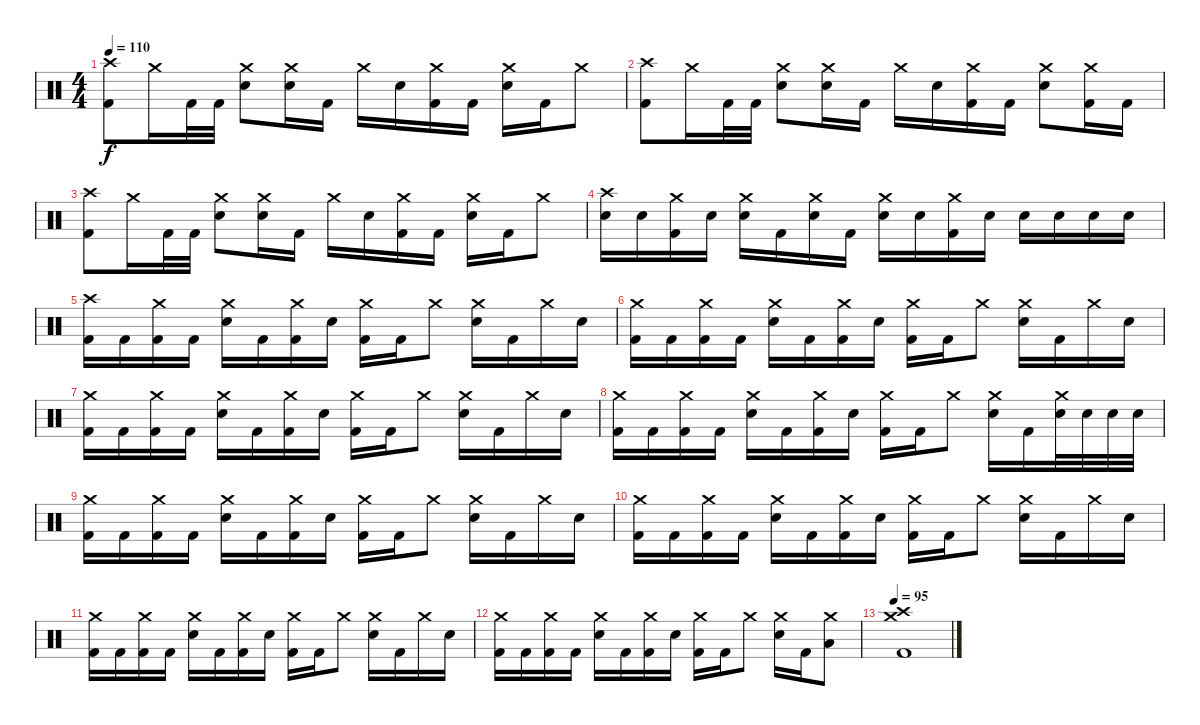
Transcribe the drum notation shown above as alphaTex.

\track "" {instrument percussion}
\staff {score}
\articulation defaults
\ts (4 4)
\tempo 110
\clef neutral
\ks c
("Crash high (hit)" "Kick (hit) 2").8{dy f} "Crash medium (hit)".16 "Kick (hit) 2".32 "Kick (hit) 2".32 ("Crash medium (hit)" "Electric Snare (hit)").8 ("Crash medium (hit)" "Electric Snare (hit)").16 "Kick (hit) 2".16 "Crash medium (hit)".16 "Electric Snare (hit)".16 ("Crash medium (hit)" "Kick (hit) 2").16 "Kick (hit) 2".16 ("Crash medium (hit)" "Electric Snare (hit)").16 "Kick (hit) 2".16 "Crash medium (hit)".8 |
("Crash high (hit)" "Kick (hit) 2").8 "Crash medium (hit)".16 "Kick (hit) 2".32 "Kick (hit) 2".32 ("Crash medium (hit)" "Electric Snare (hit)").8 ("Crash medium (hit)" "Electric Snare (hit)").16 "Kick (hit) 2".16 "Crash medium (hit)".16 "Electric Snare (hit)".16 ("Crash medium (hit)" "Kick (hit) 2").16 "Kick (hit) 2".16 ("Crash medium (hit)" "Electric Snare (hit)").8 ("Crash medium (hit)" "Kick (hit) 2").16 "Kick (hit) 2".16 |
("Crash high (hit)" "Kick (hit) 2").8 "Crash medium (hit)".16 "Kick (hit) 2".32 "Kick (hit) 2".32 ("Crash medium (hit)" "Electric Snare (hit)").8 ("Crash medium (hit)" "Electric Snare (hit)").16 "Kick (hit) 2".16 "Crash medium (hit)".16 "Electric Snare (hit)".16 ("Crash medium (hit)" "Kick (hit) 2").16 "Kick (hit) 2".16 ("Crash medium (hit)" "Electric Snare (hit)").16 "Kick (hit) 2".16 "Crash medium (hit)".8 |
("Crash high (hit)" "Electric Snare (hit)").16 "Electric Snare (hit)".16 ("Crash medium (hit)" "Kick (hit) 2").16 "Electric Snare (hit)".16 ("Crash medium (hit)" "Electric Snare (hit)").16 "Kick (hit) 2".16 ("Crash medium (hit)" "Electric Snare (hit)").16 "Kick (hit) 2".16 ("Crash medium (hit)" "Electric Snare (hit)").16 "Electric Snare (hit)".16 ("Crash medium (hit)" "Kick (hit) 2").16 "Electric Snare (hit)".16 "Electric Snare (hit)".16 "Electric Snare (hit)".16 "Electric Snare (hit)".16 "Electric Snare (hit)".16 |
("Crash high (hit)" "Kick (hit) 2").16 "Kick (hit) 2".16 ("Crash medium (hit)" "Kick (hit) 2").16 "Kick (hit) 2".16 ("Crash medium (hit)" "Electric Snare (hit)").16 "Kick (hit) 2".16 ("Crash medium (hit)" "Kick (hit) 2").16 "Electric Snare (hit)".16 ("Crash medium (hit)" "Kick (hit) 2").16 "Kick (hit) 2".16 "Crash medium (hit)".8 ("Crash medium (hit)" "Electric Snare (hit)").16 "Kick (hit) 2".16 "Crash medium (hit)".16 "Electric Snare (hit)".16 |
("Crash medium (hit)" "Kick (hit) 2").16 "Kick (hit) 2".16 ("Crash medium (hit)" "Kick (hit) 2").16 "Kick (hit) 2".16 ("Crash medium (hit)" "Electric Snare (hit)").16 "Kick (hit) 2".16 ("Crash medium (hit)" "Kick (hit) 2").16 "Electric Snare (hit)".16 ("Crash medium (hit)" "Kick (hit) 2").16 "Kick (hit) 2".16 "Crash medium (hit)".8 ("Crash medium (hit)" "Electric Snare (hit)").16 "Kick (hit) 2".16 "Crash medium (hit)".16 "Electric Snare (hit)".16 |
("Crash medium (hit)" "Kick (hit) 2").16 "Kick (hit) 2".16 ("Crash medium (hit)" "Kick (hit) 2").16 "Kick (hit) 2".16 ("Crash medium (hit)" "Electric Snare (hit)").16 "Kick (hit) 2".16 ("Crash medium (hit)" "Kick (hit) 2").16 "Electric Snare (hit)".16 ("Crash medium (hit)" "Kick (hit) 2").16 "Kick (hit) 2".16 "Crash medium (hit)".8 ("Crash medium (hit)" "Electric Snare (hit)").16 "Kick (hit) 2".16 "Crash medium (hit)".16 "Electric Snare (hit)".16 |
("Crash medium (hit)" "Kick (hit) 2").16 "Kick (hit) 2".16 ("Crash medium (hit)" "Kick (hit) 2").16 "Kick (hit) 2".16 ("Crash medium (hit)" "Electric Snare (hit)").16 "Kick (hit) 2".16 ("Crash medium (hit)" "Kick (hit) 2").16 "Electric Snare (hit)".16 ("Crash medium (hit)" "Kick (hit) 2").16 "Kick (hit) 2".16 "Crash medium (hit)".8 ("Crash medium (hit)" "Electric Snare (hit)").16 "Kick (hit) 2".16 ("Crash medium (hit)" "Electric Snare (hit)").32 "Electric Snare (hit)".32 "Electric Snare (hit)".32 "Electric Snare (hit)".32 |
("Crash medium (hit)" "Kick (hit) 2").16 "Kick (hit) 2".16 ("Crash medium (hit)" "Kick (hit) 2").16 "Kick (hit) 2".16 ("Crash medium (hit)" "Electric Snare (hit)").16 "Kick (hit) 2".16 ("Crash medium (hit)" "Kick (hit) 2").16 "Electric Snare (hit)".16 ("Crash medium (hit)" "Kick (hit) 2").16 "Kick (hit) 2".16 "Crash medium (hit)".8 ("Crash medium (hit)" "Electric Snare (hit)").16 "Kick (hit) 2".16 "Crash medium (hit)".16 "Electric Snare (hit)".16 |
("Crash medium (hit)" "Kick (hit) 2").16 "Kick (hit) 2".16 ("Crash medium (hit)" "Kick (hit) 2").16 "Kick (hit) 2".16 ("Crash medium (hit)" "Electric Snare (hit)").16 "Kick (hit) 2".16 ("Crash medium (hit)" "Kick (hit) 2").16 "Electric Snare (hit)".16 ("Crash medium (hit)" "Kick (hit) 2").16 "Kick (hit) 2".16 "Crash medium (hit)".8 ("Crash medium (hit)" "Electric Snare (hit)").16 "Kick (hit) 2".16 "Crash medium (hit)".16 "Electric Snare (hit)".16 |
("Crash medium (hit)" "Kick (hit) 2").16 "Kick (hit) 2".16 ("Crash medium (hit)" "Kick (hit) 2").16 "Kick (hit) 2".16 ("Crash medium (hit)" "Electric Snare (hit)").16 "Kick (hit) 2".16 ("Crash medium (hit)" "Kick (hit) 2").16 "Electric Snare (hit)".16 ("Crash medium (hit)" "Kick (hit) 2").16 "Kick (hit) 2".16 "Crash medium (hit)".8 ("Crash medium (hit)" "Electric Snare (hit)").16 "Kick (hit) 2".16 "Crash medium (hit)".16 "Electric Snare (hit)".16 |
("Crash medium (hit)" "Kick (hit) 2").16 "Kick (hit) 2".16 ("Crash medium (hit)" "Kick (hit) 2").16 "Kick (hit) 2".16 ("Crash medium (hit)" "Electric Snare (hit)").16 "Kick (hit) 2".16 ("Crash medium (hit)" "Kick (hit) 2").16 "Electric Snare (hit)".16 ("Crash medium (hit)" "Kick (hit) 2").16 "Kick (hit) 2".16 "Crash medium (hit)".8 ("Crash medium (hit)" "Electric Snare (hit)").16 "Kick (hit) 2".16 ("Crash medium (hit)" "Low Tom (hit)").8 |
\tempo 95
("Crash medium (hit)" "Crash high (hit)" "Kick (hit) 2").1
